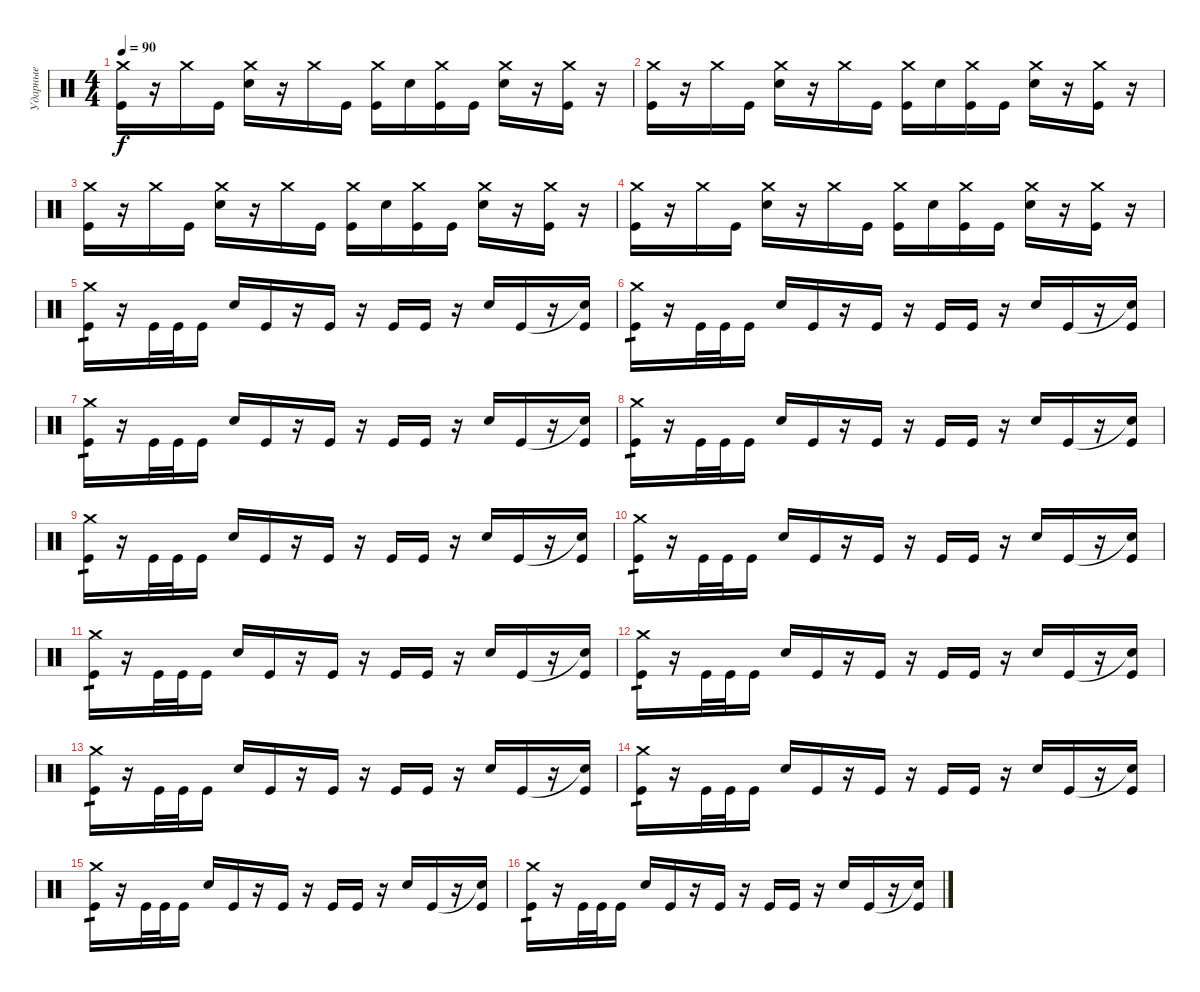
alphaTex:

\track ("Ударные" "Ударные") {instrument percussion}
\staff {score}
\articulation defaults
\ts (4 4)
\tempo 90
\clef neutral
\ks c
("Crash medium (hit)" "Kick (hit)").16{dy f} r.16 "Crash medium (hit)".16 "Kick (hit)".16 ("Crash medium (hit)" "Electric Snare (hit)").16 r.16 "Crash medium (hit)".16 "Kick (hit)".16 ("Crash medium (hit)" "Kick (hit)").16 "Electric Snare (hit)".16 ("Crash medium (hit)" "Kick (hit)").16 "Kick (hit)".16 ("Crash medium (hit)" "Electric Snare (hit)").16 r.16 ("Crash medium (hit)" "Kick (hit)").16 r.16 |
("Crash medium (hit)" "Kick (hit)").16 r.16 "Crash medium (hit)".16 "Kick (hit)".16 ("Crash medium (hit)" "Electric Snare (hit)").16 r.16 "Crash medium (hit)".16 "Kick (hit)".16 ("Crash medium (hit)" "Kick (hit)").16 "Electric Snare (hit)".16 ("Crash medium (hit)" "Kick (hit)").16 "Kick (hit)".16 ("Crash medium (hit)" "Electric Snare (hit)").16 r.16 ("Crash medium (hit)" "Kick (hit)").16 r.16 |
("Crash medium (hit)" "Kick (hit)").16 r.16 "Crash medium (hit)".16 "Kick (hit)".16 ("Crash medium (hit)" "Electric Snare (hit)").16 r.16 "Crash medium (hit)".16 "Kick (hit)".16 ("Crash medium (hit)" "Kick (hit)").16 "Electric Snare (hit)".16 ("Crash medium (hit)" "Kick (hit)").16 "Kick (hit)".16 ("Crash medium (hit)" "Electric Snare (hit)").16 r.16 ("Crash medium (hit)" "Kick (hit)").16 r.16 |
("Crash medium (hit)" "Kick (hit)").16 r.16 "Crash medium (hit)".16 "Kick (hit)".16 ("Crash medium (hit)" "Electric Snare (hit)").16 r.16 "Crash medium (hit)".16 "Kick (hit)".16 ("Crash medium (hit)" "Kick (hit)").16 "Electric Snare (hit)".16 ("Crash medium (hit)" "Kick (hit)").16 "Kick (hit)".16 ("Crash medium (hit)" "Electric Snare (hit)").16 r.16 ("Crash medium (hit)" "Kick (hit)").16 r.16 |
("Crash medium (hit)" "Kick (hit)").16{tp 1} r.16 "Kick (hit)".32 "Kick (hit)".32 "Kick (hit)".16 "Electric Snare (hit)".16 "Kick (hit)".16 r.16 "Kick (hit)".16 r.16 "Kick (hit)".16 "Kick (hit)".16 r.16 "Electric Snare (hit)".16 "Kick (hit)".16 r.16 ("Snare (hit)"{t} "Kick (hit)").16 |
("Crash medium (hit)" "Kick (hit)").16{tp 1} r.16 "Kick (hit)".32 "Kick (hit)".32 "Kick (hit)".16 "Electric Snare (hit)".16 "Kick (hit)".16 r.16 "Kick (hit)".16 r.16 "Kick (hit)".16 "Kick (hit)".16 r.16 "Electric Snare (hit)".16 "Kick (hit)".16 r.16 ("Snare (hit)"{t} "Kick (hit)").16 |
("Crash medium (hit)" "Kick (hit)").16{tp 1} r.16 "Kick (hit)".32 "Kick (hit)".32 "Kick (hit)".16 "Electric Snare (hit)".16 "Kick (hit)".16 r.16 "Kick (hit)".16 r.16 "Kick (hit)".16 "Kick (hit)".16 r.16 "Electric Snare (hit)".16 "Kick (hit)".16 r.16 ("Snare (hit)"{t} "Kick (hit)").16 |
("Crash medium (hit)" "Kick (hit)").16{tp 1} r.16 "Kick (hit)".32 "Kick (hit)".32 "Kick (hit)".16 "Electric Snare (hit)".16 "Kick (hit)".16 r.16 "Kick (hit)".16 r.16 "Kick (hit)".16 "Kick (hit)".16 r.16 "Electric Snare (hit)".16 "Kick (hit)".16 r.16 ("Snare (hit)"{t} "Kick (hit)").16 |
("Crash medium (hit)" "Kick (hit)").16{tp 1} r.16 "Kick (hit)".32 "Kick (hit)".32 "Kick (hit)".16 "Electric Snare (hit)".16 "Kick (hit)".16 r.16 "Kick (hit)".16 r.16 "Kick (hit)".16 "Kick (hit)".16 r.16 "Electric Snare (hit)".16 "Kick (hit)".16 r.16 ("Snare (hit)"{t} "Kick (hit)").16 |
("Crash medium (hit)" "Kick (hit)").16{tp 1} r.16 "Kick (hit)".32 "Kick (hit)".32 "Kick (hit)".16 "Electric Snare (hit)".16 "Kick (hit)".16 r.16 "Kick (hit)".16 r.16 "Kick (hit)".16 "Kick (hit)".16 r.16 "Electric Snare (hit)".16 "Kick (hit)".16 r.16 ("Snare (hit)"{t} "Kick (hit)").16 |
("Crash medium (hit)" "Kick (hit)").16{tp 1} r.16 "Kick (hit)".32 "Kick (hit)".32 "Kick (hit)".16 "Electric Snare (hit)".16 "Kick (hit)".16 r.16 "Kick (hit)".16 r.16 "Kick (hit)".16 "Kick (hit)".16 r.16 "Electric Snare (hit)".16 "Kick (hit)".16 r.16 ("Snare (hit)"{t} "Kick (hit)").16 |
("Crash medium (hit)" "Kick (hit)").16{tp 1} r.16 "Kick (hit)".32 "Kick (hit)".32 "Kick (hit)".16 "Electric Snare (hit)".16 "Kick (hit)".16 r.16 "Kick (hit)".16 r.16 "Kick (hit)".16 "Kick (hit)".16 r.16 "Electric Snare (hit)".16 "Kick (hit)".16 r.16 ("Snare (hit)"{t} "Kick (hit)").16 |
("Crash medium (hit)" "Kick (hit)").16{tp 1} r.16 "Kick (hit)".32 "Kick (hit)".32 "Kick (hit)".16 "Electric Snare (hit)".16 "Kick (hit)".16 r.16 "Kick (hit)".16 r.16 "Kick (hit)".16 "Kick (hit)".16 r.16 "Electric Snare (hit)".16 "Kick (hit)".16 r.16 ("Snare (hit)"{t} "Kick (hit)").16 |
("Crash medium (hit)" "Kick (hit)").16{tp 1} r.16 "Kick (hit)".32 "Kick (hit)".32 "Kick (hit)".16 "Electric Snare (hit)".16 "Kick (hit)".16 r.16 "Kick (hit)".16 r.16 "Kick (hit)".16 "Kick (hit)".16 r.16 "Electric Snare (hit)".16 "Kick (hit)".16 r.16 ("Snare (hit)"{t} "Kick (hit)").16 |
("Crash medium (hit)" "Kick (hit)").16{tp 1} r.16 "Kick (hit)".32 "Kick (hit)".32 "Kick (hit)".16 "Electric Snare (hit)".16 "Kick (hit)".16 r.16 "Kick (hit)".16 r.16 "Kick (hit)".16 "Kick (hit)".16 r.16 "Electric Snare (hit)".16 "Kick (hit)".16 r.16 ("Snare (hit)"{t} "Kick (hit)").16 |
("Crash medium (hit)" "Kick (hit)").16{tp 1} r.16 "Kick (hit)".32 "Kick (hit)".32 "Kick (hit)".16 "Electric Snare (hit)".16 "Kick (hit)".16 r.16 "Kick (hit)".16 r.16 "Kick (hit)".16 "Kick (hit)".16 r.16 "Electric Snare (hit)".16 "Kick (hit)".16 r.16 ("Snare (hit)"{t} "Kick (hit)").16
